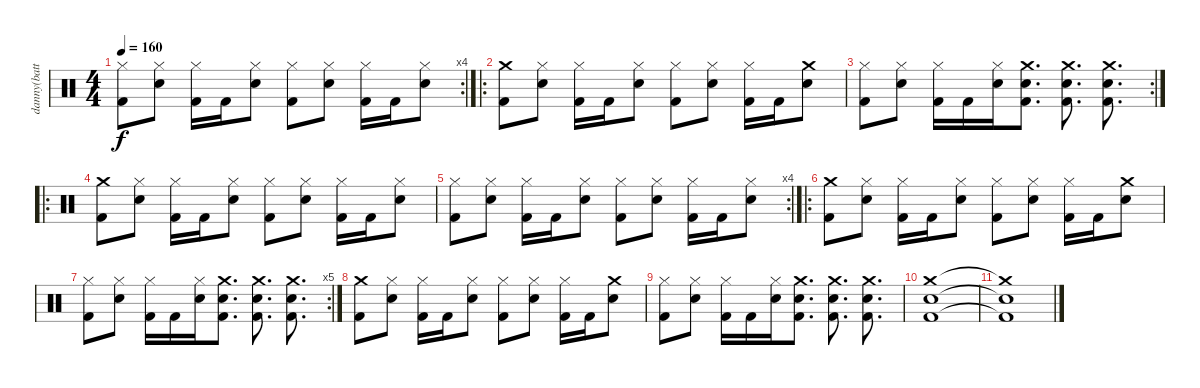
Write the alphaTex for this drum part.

\track ("danny(batterie)" "danny(batt") {instrument percussion}
\staff {score}
\articulation defaults
\rc 4
\ts (4 4)
\tempo 160
\clef neutral
\ks c
("Hi-Hat (closed)" "Kick (hit) 2").8{dy f} ("Hi-Hat (closed)" "Snare (hit) 2").8 ("Hi-Hat (closed)" "Kick (hit) 2").16 "Kick (hit) 2".16 ("Hi-Hat (closed)" "Snare (hit) 2").8 ("Hi-Hat (closed)" "Kick (hit) 2").8 ("Hi-Hat (closed)" "Snare (hit) 2").8 ("Hi-Hat (closed)" "Kick (hit) 2").16 "Kick (hit) 2".16 ("Hi-Hat (closed)" "Snare (hit) 2").8 |
\ro
("Crash medium (hit)" "Kick (hit) 2").8 ("Hi-Hat (closed)" "Snare (hit) 2").8 ("Hi-Hat (closed)" "Kick (hit) 2").16 "Kick (hit) 2".16 ("Hi-Hat (closed)" "Snare (hit) 2").8 ("Hi-Hat (closed)" "Kick (hit) 2").8 ("Hi-Hat (closed)" "Snare (hit) 2").8 ("Hi-Hat (closed)" "Kick (hit) 2").16 "Kick (hit) 2".16 ("Crash medium (hit)" "Snare (hit) 2").8 |
\rc 2
("Hi-Hat (closed)" "Kick (hit) 2").8 ("Hi-Hat (closed)" "Snare (hit) 2").8 ("Hi-Hat (closed)" "Kick (hit) 2").16 "Kick (hit) 2".16 ("Hi-Hat (closed)" "Snare (hit) 2").16 ("Crash medium (hit)" "Snare (hit) 2" "Kick (hit) 2").8{d} ("Crash medium (hit)" "Snare (hit) 2" "Kick (hit) 2").8{d} ("Crash medium (hit)" "Snare (hit) 2" "Kick (hit) 2").8{d} |
\ro
("Crash medium (hit)" "Kick (hit) 2").8 ("Hi-Hat (closed)" "Snare (hit) 2").8 ("Hi-Hat (closed)" "Kick (hit) 2").16 "Kick (hit) 2".16 ("Hi-Hat (closed)" "Snare (hit) 2").8 ("Hi-Hat (closed)" "Kick (hit) 2").8 ("Hi-Hat (closed)" "Snare (hit) 2").8 ("Hi-Hat (closed)" "Kick (hit) 2").16 "Kick (hit) 2".16 ("Hi-Hat (closed)" "Snare (hit) 2").8 |
\rc 4
("Hi-Hat (closed)" "Kick (hit) 2").8 ("Hi-Hat (closed)" "Snare (hit) 2").8 ("Hi-Hat (closed)" "Kick (hit) 2").16 "Kick (hit) 2".16 ("Hi-Hat (closed)" "Snare (hit) 2").8 ("Hi-Hat (closed)" "Kick (hit) 2").8 ("Hi-Hat (closed)" "Snare (hit) 2").8 ("Hi-Hat (closed)" "Kick (hit) 2").16 "Kick (hit) 2".16 ("Hi-Hat (closed)" "Snare (hit) 2").8 |
\ro
("Crash medium (hit)" "Kick (hit) 2").8 ("Hi-Hat (closed)" "Snare (hit) 2").8 ("Hi-Hat (closed)" "Kick (hit) 2").16 "Kick (hit) 2".16 ("Hi-Hat (closed)" "Snare (hit) 2").8 ("Hi-Hat (closed)" "Kick (hit) 2").8 ("Hi-Hat (closed)" "Snare (hit) 2").8 ("Hi-Hat (closed)" "Kick (hit) 2").16 "Kick (hit) 2".16 ("Crash medium (hit)" "Snare (hit) 2").8 |
\rc 5
("Hi-Hat (closed)" "Kick (hit) 2").8 ("Hi-Hat (closed)" "Snare (hit) 2").8 ("Hi-Hat (closed)" "Kick (hit) 2").16 "Kick (hit) 2".16 ("Hi-Hat (closed)" "Snare (hit) 2").16 ("Crash medium (hit)" "Snare (hit) 2" "Kick (hit) 2").8{d} ("Crash medium (hit)" "Snare (hit) 2" "Kick (hit) 2").8{d} ("Crash medium (hit)" "Snare (hit) 2" "Kick (hit) 2").8{d} |
("Crash medium (hit)" "Kick (hit) 2").8 ("Hi-Hat (closed)" "Snare (hit) 2").8 ("Hi-Hat (closed)" "Kick (hit) 2").16 "Kick (hit) 2".16 ("Hi-Hat (closed)" "Snare (hit) 2").8 ("Hi-Hat (closed)" "Kick (hit) 2").8 ("Hi-Hat (closed)" "Snare (hit) 2").8 ("Hi-Hat (closed)" "Kick (hit) 2").16 "Kick (hit) 2".16 ("Crash medium (hit)" "Snare (hit) 2").8 |
("Hi-Hat (closed)" "Kick (hit) 2").8 ("Hi-Hat (closed)" "Snare (hit) 2").8 ("Hi-Hat (closed)" "Kick (hit) 2").16 "Kick (hit) 2".16 ("Hi-Hat (closed)" "Snare (hit) 2").16 ("Crash medium (hit)" "Snare (hit) 2" "Kick (hit) 2").8{d} ("Crash medium (hit)" "Snare (hit) 2" "Kick (hit) 2").8{d} ("Crash medium (hit)" "Snare (hit) 2" "Kick (hit) 2").8{d} |
("Crash medium (hit)" "Snare (hit) 2" "Kick (hit) 2").1 |
("Crash medium (hit)"{t} "Snare (hit) 2"{t} "Kick (hit) 2"{t}).1
